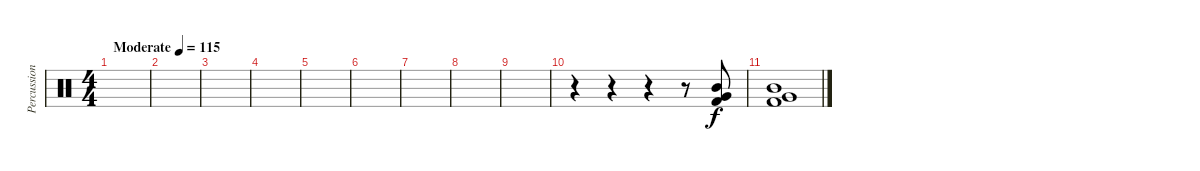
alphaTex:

\track ("Percussion" "Percussion") {instrument percussion}
\staff {score}
\articulation defaults
\ts (4 4)
\tempo (115 "Moderate")
\clef neutral
\ks c
|
|
|
|
|
|
|
|
|
r.4 r.4 r.4 r.8 ("Kick (hit) 2" "Very Low Tom (hit)" "Mid Tom (hit)").8 |
("Kick (hit) 2" "Very Low Tom (hit)" "Mid Tom (hit)").1
